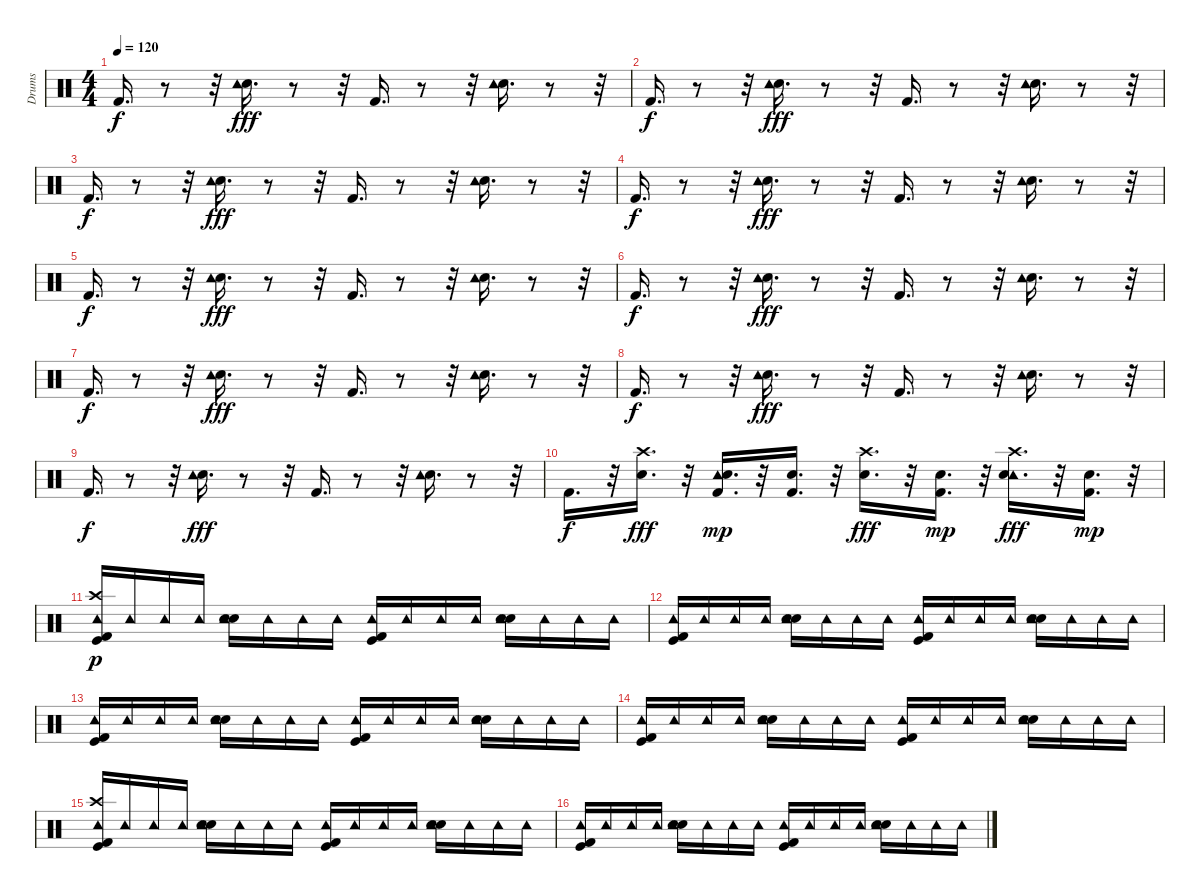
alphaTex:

\track ("Drums" "Drums") {instrument percussion}
\staff {score}
\articulation defaults
\ts (4 4)
\tempo 120
\clef neutral
\ks c "Kick (hit) 2".16{d dy f}
r.8 r.32 ("Snare (hit) 2" "Tambourine (hit)").16{d dy fff} r.8 r.32 "Kick (hit) 2".16{d} r.8 r.32 ("Snare (hit) 2" "Tambourine (hit)").16{d} r.8 r.32 |
"Kick (hit) 2".16{d dy f} r.8 r.32 ("Snare (hit) 2" "Tambourine (hit)").16{d dy fff} r.8 r.32 "Kick (hit) 2".16{d} r.8 r.32 ("Snare (hit) 2" "Tambourine (hit)").16{d} r.8 r.32 |
"Kick (hit) 2".16{d dy f} r.8 r.32 ("Snare (hit) 2" "Tambourine (hit)").16{d dy fff} r.8 r.32 "Kick (hit) 2".16{d} r.8 r.32 ("Snare (hit) 2" "Tambourine (hit)").16{d} r.8 r.32 |
"Kick (hit) 2".16{d dy f} r.8 r.32 ("Snare (hit) 2" "Tambourine (hit)").16{d dy fff} r.8 r.32 "Kick (hit) 2".16{d} r.8 r.32 ("Snare (hit) 2" "Tambourine (hit)").16{d} r.8 r.32 |
"Kick (hit) 2".16{d dy f} r.8 r.32 ("Snare (hit) 2" "Tambourine (hit)").16{d dy fff} r.8 r.32 "Kick (hit) 2".16{d} r.8 r.32 ("Snare (hit) 2" "Tambourine (hit)").16{d} r.8 r.32 |
"Kick (hit) 2".16{d dy f} r.8 r.32 ("Snare (hit) 2" "Tambourine (hit)").16{d dy fff} r.8 r.32 "Kick (hit) 2".16{d} r.8 r.32 ("Snare (hit) 2" "Tambourine (hit)").16{d} r.8 r.32 |
"Kick (hit) 2".16{d dy f} r.8 r.32 ("Snare (hit) 2" "Tambourine (hit)").16{d dy fff} r.8 r.32 "Kick (hit) 2".16{d} r.8 r.32 ("Snare (hit) 2" "Tambourine (hit)").16{d} r.8 r.32 |
"Kick (hit) 2".16{d dy f} r.8 r.32 ("Snare (hit) 2" "Tambourine (hit)").16{d dy fff} r.8 r.32 "Kick (hit) 2".16{d} r.8 r.32 ("Snare (hit) 2" "Tambourine (hit)").16{d} r.8 r.32 |
"Kick (hit) 2".16{d dy f} r.8 r.32 ("Snare (hit) 2" "Tambourine (hit)").16{d dy fff} r.8 r.32 "Kick (hit) 2".16{d} r.8 r.32 ("Snare (hit) 2" "Tambourine (hit)").16{d} r.8 r.32 |
"Kick (hit) 2".16{d dy f} r.32 ("Crash high (hit)" "Snare (hit) 2").16{d dy fff} r.32 ("Tambourine (hit)" "Kick (hit) 2" "Electric Snare (hit)").16{d dy mp} r.32 ("Kick (hit) 2" "Electric Snare (hit)").16{d} r.32 ("Crash high (hit)" "Snare (hit) 2").16{d dy fff} r.32 ("Kick (hit) 2" "Electric Snare (hit)").16{d dy mp} r.32 ("Tambourine (hit)" "Crash high (hit)" "Snare (hit) 2").16{d dy fff} r.32 ("Kick (hit) 2" "Electric Snare (hit)").16{d dy mp} r.32 |
("Kick (hit) 2" "Tambourine (hit)" "Crash high (hit)" "Kick (hit)").16{dy p} "Tambourine (hit)".16 "Tambourine (hit)".16 "Tambourine (hit)".16 ("Snare (hit) 2" "Tambourine (hit)" "Electric Snare (hit)").16 "Tambourine (hit)".16 "Tambourine (hit)".16 "Tambourine (hit)".16 ("Kick (hit) 2" "Tambourine (hit)" "Kick (hit)").16 "Tambourine (hit)".16 "Tambourine (hit)".16 "Tambourine (hit)".16 ("Snare (hit) 2" "Tambourine (hit)" "Electric Snare (hit)").16 "Tambourine (hit)".16 "Tambourine (hit)".16 "Tambourine (hit)".16 |
("Kick (hit) 2" "Tambourine (hit)" "Kick (hit)").16 "Tambourine (hit)".16 "Tambourine (hit)".16 "Tambourine (hit)".16 ("Snare (hit) 2" "Tambourine (hit)" "Electric Snare (hit)").16 "Tambourine (hit)".16 "Tambourine (hit)".16 "Tambourine (hit)".16 ("Kick (hit) 2" "Tambourine (hit)" "Kick (hit)").16 "Tambourine (hit)".16 "Tambourine (hit)".16 "Tambourine (hit)".16 ("Snare (hit) 2" "Tambourine (hit)" "Electric Snare (hit)").16 "Tambourine (hit)".16 "Tambourine (hit)".16 "Tambourine (hit)".16 |
("Kick (hit) 2" "Tambourine (hit)" "Kick (hit)").16 "Tambourine (hit)".16 "Tambourine (hit)".16 "Tambourine (hit)".16 ("Snare (hit) 2" "Tambourine (hit)" "Electric Snare (hit)").16 "Tambourine (hit)".16 "Tambourine (hit)".16 "Tambourine (hit)".16 ("Kick (hit) 2" "Tambourine (hit)" "Kick (hit)").16 "Tambourine (hit)".16 "Tambourine (hit)".16 "Tambourine (hit)".16 ("Snare (hit) 2" "Tambourine (hit)" "Electric Snare (hit)").16 "Tambourine (hit)".16 "Tambourine (hit)".16 "Tambourine (hit)".16 |
("Kick (hit) 2" "Tambourine (hit)" "Kick (hit)").16 "Tambourine (hit)".16 "Tambourine (hit)".16 "Tambourine (hit)".16 ("Snare (hit) 2" "Tambourine (hit)" "Electric Snare (hit)").16 "Tambourine (hit)".16 "Tambourine (hit)".16 "Tambourine (hit)".16 ("Kick (hit) 2" "Tambourine (hit)" "Kick (hit)").16 "Tambourine (hit)".16 "Tambourine (hit)".16 "Tambourine (hit)".16 ("Snare (hit) 2" "Tambourine (hit)" "Electric Snare (hit)").16 "Tambourine (hit)".16 "Tambourine (hit)".16 "Tambourine (hit)".16 |
("Kick (hit) 2" "Tambourine (hit)" "Crash high (hit)" "Kick (hit)").16 "Tambourine (hit)".16 "Tambourine (hit)".16 "Tambourine (hit)".16 ("Snare (hit) 2" "Tambourine (hit)" "Electric Snare (hit)").16 "Tambourine (hit)".16 "Tambourine (hit)".16 "Tambourine (hit)".16 ("Kick (hit) 2" "Tambourine (hit)" "Kick (hit)").16 "Tambourine (hit)".16 "Tambourine (hit)".16 "Tambourine (hit)".16 ("Snare (hit) 2" "Tambourine (hit)" "Electric Snare (hit)").16 "Tambourine (hit)".16 "Tambourine (hit)".16 "Tambourine (hit)".16 |
("Kick (hit) 2" "Tambourine (hit)" "Kick (hit)").16 "Tambourine (hit)".16 "Tambourine (hit)".16 "Tambourine (hit)".16 ("Snare (hit) 2" "Tambourine (hit)" "Electric Snare (hit)").16 "Tambourine (hit)".16 "Tambourine (hit)".16 "Tambourine (hit)".16 ("Kick (hit) 2" "Tambourine (hit)" "Kick (hit)").16 "Tambourine (hit)".16 "Tambourine (hit)".16 "Tambourine (hit)".16 ("Snare (hit) 2" "Tambourine (hit)" "Electric Snare (hit)").16 "Tambourine (hit)".16 "Tambourine (hit)".16 "Tambourine (hit)".16
